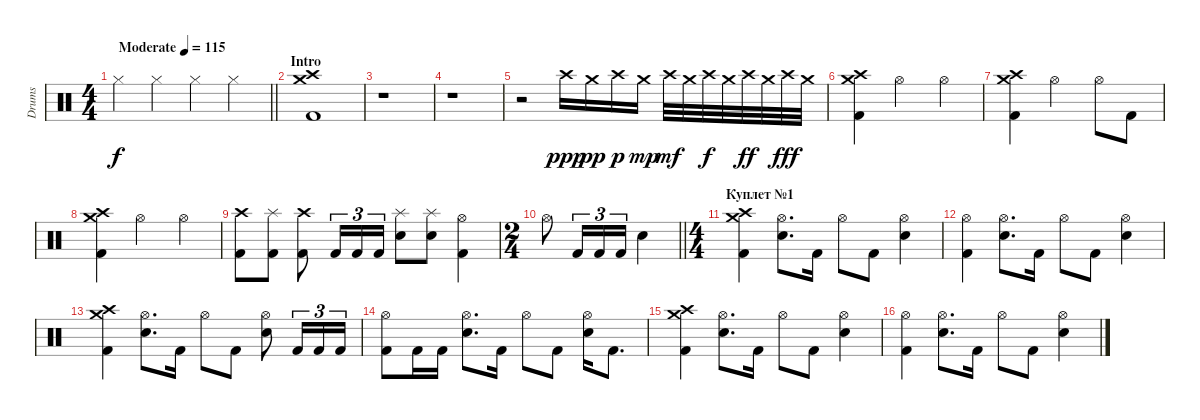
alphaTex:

\track ("Drums " "Drums ") {instrument percussion}
\staff {score}
\articulation defaults
\ts (4 4)
\tempo (115 "Moderate")
\clef neutral
\barLineRight lightlight
\ks c "Hi-Hat (closed)".4{dy f} "Hi-Hat (closed)".4 "Hi-Hat (closed)".4 "Hi-Hat (closed)".4
|
\section ("" "Intro ")
("Crash medium (hit)" "Crash high (hit)" "Kick (hit) 2").1 |
r.1 |
r.1 |
r.2 "Crash high (hit)".16{dy ppp} "Crash medium (hit)".16{dy pp} "Crash high (hit)".16{dy p} "Crash medium (hit)".16{dy mp} "Crash high (hit)".32{dy mf} "Crash medium (hit)".32 "Crash high (hit)".32{dy f} "Crash medium (hit)".32 "Crash high (hit)".32{dy ff} "Crash medium (hit)".32 "Crash high (hit)".32{dy fff} "Crash medium (hit)".32 |
("Crash medium (hit)" "Crash high (hit)" "Kick (hit) 2").4 "Hi-Hat (open)".2 "Hi-Hat (open)".4 |
("Crash medium (hit)" "Crash high (hit)" "Kick (hit) 2").4 "Hi-Hat (open)".2 "Hi-Hat (open)".8 "Kick (hit) 2".8 |
("Crash medium (hit)" "Crash high (hit)" "Kick (hit) 2").4 "Hi-Hat (open)".2 "Hi-Hat (open)".4 |
("Crash high (hit)" "Kick (hit) 2").8 ("Splash (hit)" "Kick (hit) 2").8 ("Crash high (hit)" "Kick (hit) 2").8 "Kick (hit) 2".16{tu (3 2)} "Kick (hit) 2".16{tu (3 2)} "Kick (hit) 2".16{tu (3 2)} ("Splash (hit)" "Electric Snare (hit)").8 ("Splash (hit)" "Electric Snare (hit)").8 ("Hi-Hat (open)" "Kick (hit) 2").4 |
\ts (2 4)
\barLineRight lightlight "Hi-Hat (open)".8 "Kick (hit) 2".16{tu (3 2)} "Kick (hit) 2".16{tu (3 2)} "Kick (hit) 2".16{tu (3 2)} "Electric Snare (hit)".4
|
\ts (4 4)
\section ("" "Куплет №1")
("Crash medium (hit)" "Crash high (hit)" "Kick (hit) 2").4 ("Hi-Hat (open)" "Electric Snare (hit)").8{d} "Kick (hit) 2".16 "Hi-Hat (open)".8 "Kick (hit) 2".8 ("Hi-Hat (open)" "Electric Snare (hit)").4 |
("Hi-Hat (open)" "Kick (hit) 2").4 ("Hi-Hat (open)" "Electric Snare (hit)").8{d} "Kick (hit) 2".16 "Hi-Hat (open)".8 "Kick (hit) 2".8 ("Hi-Hat (open)" "Electric Snare (hit)").4 |
("Crash medium (hit)" "Crash high (hit)" "Kick (hit) 2").4 ("Hi-Hat (open)" "Electric Snare (hit)").8{d} "Kick (hit) 2".16 "Hi-Hat (open)".8 "Kick (hit) 2".8 ("Hi-Hat (open)" "Electric Snare (hit)").8 "Kick (hit) 2".16{tu (3 2)} "Kick (hit) 2".16{tu (3 2)} "Kick (hit) 2".16{tu (3 2)} |
("Hi-Hat (open)" "Kick (hit) 2").8 "Kick (hit) 2".16 "Kick (hit) 2".16 ("Hi-Hat (open)" "Electric Snare (hit)").8{d} "Kick (hit) 2".16 "Hi-Hat (open)".8 "Kick (hit) 2".8 ("Hi-Hat (open)" "Electric Snare (hit)").16 "Kick (hit) 2".8{d} |
("Crash medium (hit)" "Crash high (hit)" "Kick (hit) 2").4 ("Hi-Hat (open)" "Electric Snare (hit)").8{d} "Kick (hit) 2".16 "Hi-Hat (open)".8 "Kick (hit) 2".8 ("Hi-Hat (open)" "Electric Snare (hit)").4 |
("Hi-Hat (open)" "Kick (hit) 2").4 ("Hi-Hat (open)" "Electric Snare (hit)").8{d} "Kick (hit) 2".16 "Hi-Hat (open)".8 "Kick (hit) 2".8 ("Hi-Hat (open)" "Electric Snare (hit)").4
